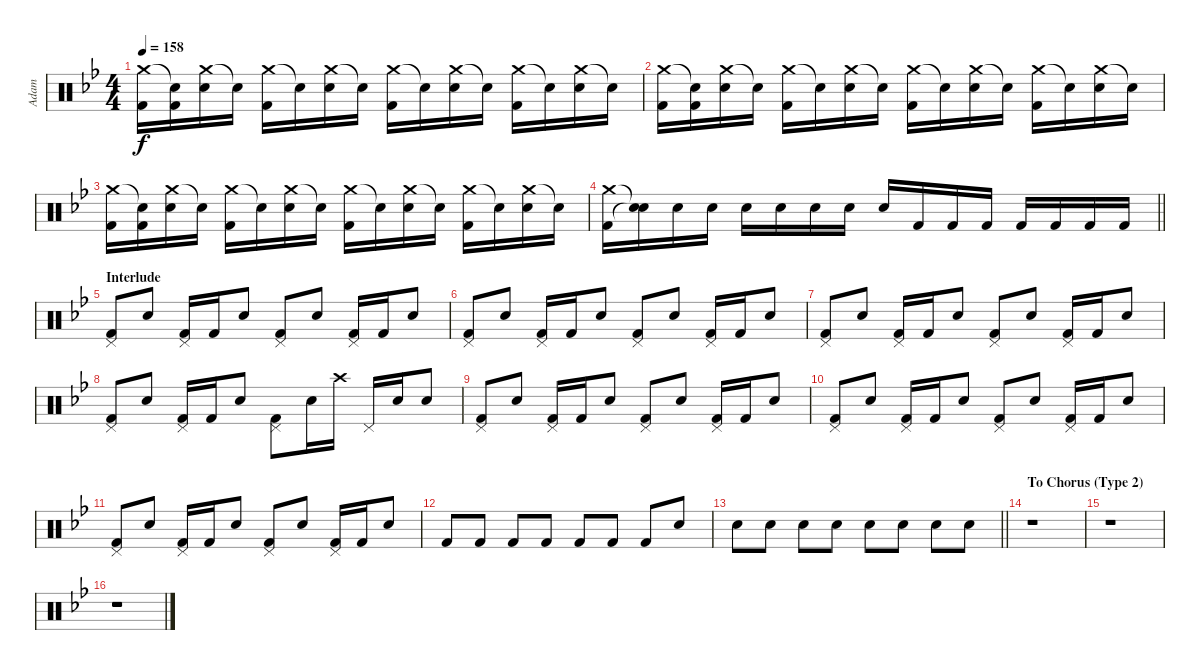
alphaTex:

\track ("Adam" "Adam") {instrument percussion}
\staff
\articulation defaults
\ts (4 4)
\tempo 158
\clef neutral
\ks gminor
("Crash medium (hit)" "Kick (hit) 2").16{dy f} ("Snare (hit)"{t} "Kick (hit) 2").16 ("Crash medium (hit)" "Snare (hit) 2").16 "Snare (hit)"{t}.16 ("Crash medium (hit)" "Kick (hit) 2").16 "Snare (hit)"{t}.16 ("Crash medium (hit)" "Snare (hit) 2").16 "Snare (hit)"{t}.16 ("Crash medium (hit)" "Kick (hit) 2").16 "Snare (hit)"{t}.16 ("Crash medium (hit)" "Snare (hit) 2").16 "Snare (hit)"{t}.16 ("Crash medium (hit)" "Kick (hit) 2").16 "Snare (hit)"{t}.16 ("Crash medium (hit)" "Snare (hit) 2").16 "Snare (hit)"{t}.16 |
("Crash medium (hit)" "Kick (hit) 2").16 ("Snare (hit)"{t} "Kick (hit) 2").16 ("Crash medium (hit)" "Snare (hit) 2").16 "Snare (hit)"{t}.16 ("Crash medium (hit)" "Kick (hit) 2").16 "Snare (hit)"{t}.16 ("Crash medium (hit)" "Snare (hit) 2").16 "Snare (hit)"{t}.16 ("Crash medium (hit)" "Kick (hit) 2").16 "Snare (hit)"{t}.16 ("Crash medium (hit)" "Snare (hit) 2").16 "Snare (hit)"{t}.16 ("Crash medium (hit)" "Kick (hit) 2").16 "Snare (hit)"{t}.16 ("Crash medium (hit)" "Snare (hit) 2").16 "Snare (hit)"{t}.16 |
("Crash medium (hit)" "Kick (hit) 2").16 ("Snare (hit)"{t} "Kick (hit) 2").16 ("Crash medium (hit)" "Snare (hit) 2").16 "Snare (hit)"{t}.16 ("Crash medium (hit)" "Kick (hit) 2").16 "Snare (hit)"{t}.16 ("Crash medium (hit)" "Snare (hit) 2").16 "Snare (hit)"{t}.16 ("Crash medium (hit)" "Kick (hit) 2").16 "Snare (hit)"{t}.16 ("Crash medium (hit)" "Snare (hit) 2").16 "Snare (hit)"{t}.16 ("Crash medium (hit)" "Kick (hit) 2").16 "Snare (hit)"{t}.16 ("Crash medium (hit)" "Snare (hit) 2").16 "Snare (hit)"{t}.16 |
\barLineRight lightlight
("Crash medium (hit)" "Kick (hit) 2").16 ("Snare (hit)"{t} "Snare (hit)"{t}).16 "Snare (hit) 2".16 "Snare (hit) 2".16 "Snare (hit) 2".16 "Snare (hit) 2".16 "Snare (hit) 2".16 "Snare (hit) 2".16 "Snare (hit) 2".16 "Kick (hit) 2".16 "Kick (hit) 2".16 "Kick (hit) 2".16 "Kick (hit) 2".16 "Kick (hit) 2".16 "Kick (hit) 2".16 "Kick (hit) 2".16 |
\section ("" "Interlude")
("Pedal Hi-Hat (hit)" "Kick (hit) 2").8 "Snare (hit) 2".8 ("Pedal Hi-Hat (hit)" "Kick (hit) 2").16 "Kick (hit) 2".16 "Snare (hit) 2".8 ("Pedal Hi-Hat (hit)" "Kick (hit) 2").8 "Snare (hit) 2".8 ("Pedal Hi-Hat (hit)" "Kick (hit) 2").16 "Kick (hit) 2".16 "Snare (hit) 2".8 |
("Pedal Hi-Hat (hit)" "Kick (hit) 2").8 "Snare (hit) 2".8 ("Pedal Hi-Hat (hit)" "Kick (hit) 2").16 "Kick (hit) 2".16 "Snare (hit) 2".8 ("Pedal Hi-Hat (hit)" "Kick (hit) 2").8 "Snare (hit) 2".8 ("Pedal Hi-Hat (hit)" "Kick (hit) 2").16 "Kick (hit) 2".16 "Snare (hit) 2".8 |
("Pedal Hi-Hat (hit)" "Kick (hit) 2").8 "Snare (hit) 2".8 ("Pedal Hi-Hat (hit)" "Kick (hit) 2").16 "Kick (hit) 2".16 "Snare (hit) 2".8 ("Pedal Hi-Hat (hit)" "Kick (hit) 2").8 "Snare (hit) 2".8 ("Pedal Hi-Hat (hit)" "Kick (hit) 2").16 "Kick (hit) 2".16 "Snare (hit) 2".8 |
("Pedal Hi-Hat (hit)" "Kick (hit) 2").8 "Snare (hit) 2".8 ("Pedal Hi-Hat (hit)" "Kick (hit) 2").16 "Kick (hit) 2".16 "Snare (hit) 2".8 ("Pedal Hi-Hat (hit)" "Kick (hit) 2").8 "Snare (hit) 2".16 "Crash high (hit)".16 "Pedal Hi-Hat (hit)".16 "Snare (hit) 2".16 "Snare (hit) 2".8 |
("Pedal Hi-Hat (hit)" "Kick (hit) 2").8 "Snare (hit) 2".8 ("Pedal Hi-Hat (hit)" "Kick (hit) 2").16 "Kick (hit) 2".16 "Snare (hit) 2".8 ("Pedal Hi-Hat (hit)" "Kick (hit) 2").8 "Snare (hit) 2".8 ("Pedal Hi-Hat (hit)" "Kick (hit) 2").16 "Kick (hit) 2".16 "Snare (hit) 2".8 |
("Pedal Hi-Hat (hit)" "Kick (hit) 2").8 "Snare (hit) 2".8 ("Pedal Hi-Hat (hit)" "Kick (hit) 2").16 "Kick (hit) 2".16 "Snare (hit) 2".8 ("Pedal Hi-Hat (hit)" "Kick (hit) 2").8 "Snare (hit) 2".8 ("Pedal Hi-Hat (hit)" "Kick (hit) 2").16 "Kick (hit) 2".16 "Snare (hit) 2".8 |
("Pedal Hi-Hat (hit)" "Kick (hit) 2").8 "Snare (hit) 2".8 ("Pedal Hi-Hat (hit)" "Kick (hit) 2").16 "Kick (hit) 2".16 "Snare (hit) 2".8 ("Pedal Hi-Hat (hit)" "Kick (hit) 2").8 "Snare (hit) 2".8 ("Pedal Hi-Hat (hit)" "Kick (hit) 2").16 "Kick (hit) 2".16 "Snare (hit) 2".8 |
"Kick (hit) 2".8 "Kick (hit) 2".8 "Kick (hit) 2".8 "Kick (hit) 2".8 "Kick (hit) 2".8 "Kick (hit) 2".8 "Kick (hit) 2".8 "Snare (hit) 2".8 |
\barLineRight lightlight "Snare (hit) 2".8 "Snare (hit) 2".8 "Snare (hit) 2".8 "Snare (hit) 2".8 "Snare (hit) 2".8 "Snare (hit) 2".8 "Snare (hit) 2".8 "Snare (hit) 2".8
|
\section ("" "To Chorus (Type 2)")
r.1 |
r.1 |
r.1
